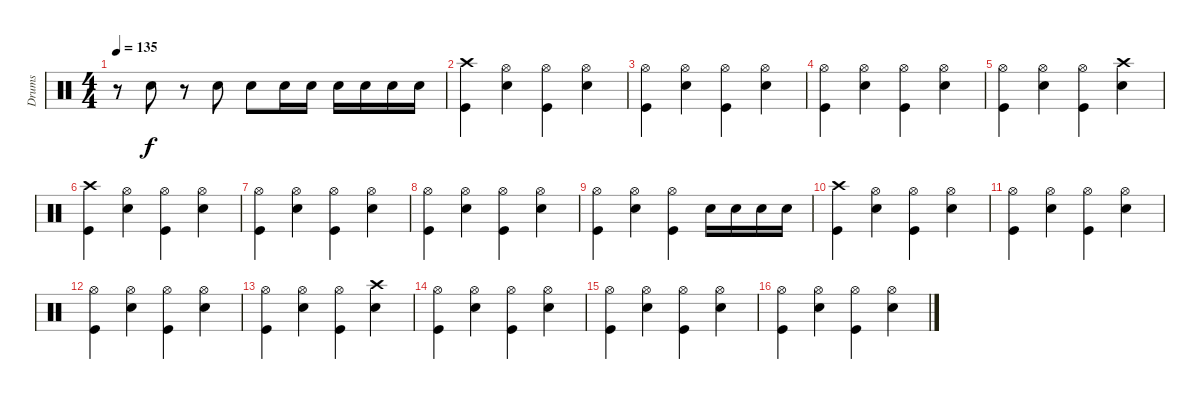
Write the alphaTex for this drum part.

\track ("Drums" "Drums") {instrument percussion}
\staff {score}
\articulation defaults
\ts (4 4)
\tempo 135
\clef neutral
\ks c
r.8{dy f} "Snare (hit) 2".8 r.8 "Snare (hit) 2".8 "Snare (hit) 2".8 "Snare (hit) 2".16 "Snare (hit) 2".16 "Snare (hit) 2".16 "Snare (hit) 2".16 "Snare (hit) 2".16 "Snare (hit) 2".16 |
("Crash high (hit)" "Kick (hit)").4 ("Hi-Hat (open)" "Snare (hit) 2").4 ("Hi-Hat (open)" "Kick (hit)").4 ("Hi-Hat (open)" "Snare (hit) 2").4 |
("Hi-Hat (open)" "Kick (hit)").4 ("Hi-Hat (open)" "Snare (hit) 2").4 ("Hi-Hat (open)" "Kick (hit)").4 ("Hi-Hat (open)" "Snare (hit) 2").4 |
("Hi-Hat (open)" "Kick (hit)").4 ("Hi-Hat (open)" "Snare (hit) 2").4 ("Hi-Hat (open)" "Kick (hit)").4 ("Hi-Hat (open)" "Snare (hit) 2").4 |
("Hi-Hat (open)" "Kick (hit)").4 ("Hi-Hat (open)" "Snare (hit) 2").4 ("Hi-Hat (open)" "Kick (hit)").4 ("Crash high (hit)" "Snare (hit) 2").4 |
("Crash high (hit)" "Kick (hit)").4 ("Hi-Hat (open)" "Snare (hit) 2").4 ("Hi-Hat (open)" "Kick (hit)").4 ("Hi-Hat (open)" "Snare (hit) 2").4 |
("Hi-Hat (open)" "Kick (hit)").4 ("Hi-Hat (open)" "Snare (hit) 2").4 ("Hi-Hat (open)" "Kick (hit)").4 ("Hi-Hat (open)" "Snare (hit) 2").4 |
("Hi-Hat (open)" "Kick (hit)").4 ("Hi-Hat (open)" "Snare (hit) 2").4 ("Hi-Hat (open)" "Kick (hit)").4 ("Hi-Hat (open)" "Snare (hit) 2").4 |
("Hi-Hat (open)" "Kick (hit)").4 ("Hi-Hat (open)" "Snare (hit) 2").4 ("Hi-Hat (open)" "Kick (hit)").4 "Snare (hit) 2".16 "Snare (hit) 2".16 "Snare (hit) 2".16 "Snare (hit) 2".16 |
("Crash high (hit)" "Kick (hit)").4 ("Hi-Hat (open)" "Snare (hit) 2").4 ("Hi-Hat (open)" "Kick (hit)").4 ("Hi-Hat (open)" "Snare (hit) 2").4 |
("Hi-Hat (open)" "Kick (hit)").4 ("Hi-Hat (open)" "Snare (hit) 2").4 ("Hi-Hat (open)" "Kick (hit)").4 ("Hi-Hat (open)" "Snare (hit) 2").4 |
("Hi-Hat (open)" "Kick (hit)").4 ("Hi-Hat (open)" "Snare (hit) 2").4 ("Hi-Hat (open)" "Kick (hit)").4 ("Hi-Hat (open)" "Snare (hit) 2").4 |
("Hi-Hat (open)" "Kick (hit)").4 ("Hi-Hat (open)" "Snare (hit) 2").4 ("Hi-Hat (open)" "Kick (hit)").4 ("Crash high (hit)" "Snare (hit) 2").4 |
("Hi-Hat (open)" "Kick (hit)").4 ("Hi-Hat (open)" "Snare (hit) 2").4 ("Hi-Hat (open)" "Kick (hit)").4 ("Hi-Hat (open)" "Snare (hit) 2").4 |
("Hi-Hat (open)" "Kick (hit)").4 ("Hi-Hat (open)" "Snare (hit) 2").4 ("Hi-Hat (open)" "Kick (hit)").4 ("Hi-Hat (open)" "Snare (hit) 2").4 |
("Hi-Hat (open)" "Kick (hit)").4 ("Hi-Hat (open)" "Snare (hit) 2").4 ("Hi-Hat (open)" "Kick (hit)").4 ("Hi-Hat (open)" "Snare (hit) 2").4
